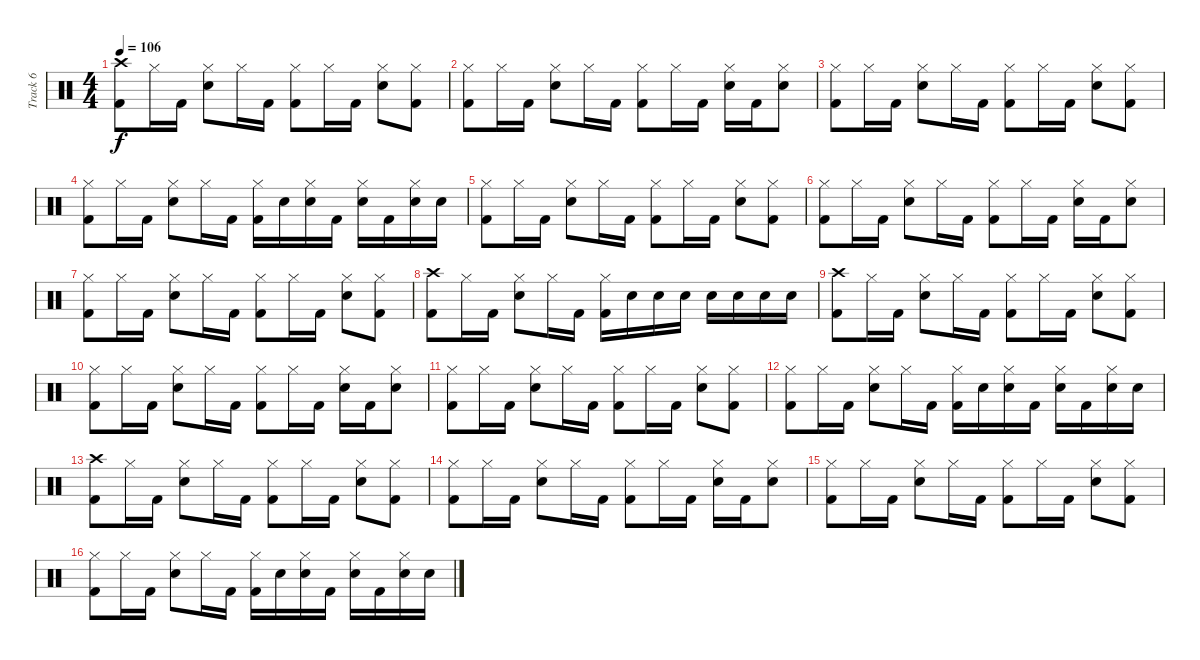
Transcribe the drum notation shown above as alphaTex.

\track ("Track 6" "Track 6") {instrument percussion}
\staff {score}
\articulation defaults
\ts (4 4)
\tempo 106
\clef neutral
\ks c
("Crash high (hit)" "Kick (hit) 2").8{dy f} "Hi-Hat (closed)".16 "Kick (hit) 2".16 ("Hi-Hat (closed)" "Snare (hit) 2").8 "Hi-Hat (closed)".16 "Kick (hit) 2".16 ("Hi-Hat (closed)" "Kick (hit) 2").8 "Hi-Hat (closed)".16 "Kick (hit) 2".16 ("Hi-Hat (closed)" "Snare (hit) 2").8 ("Hi-Hat (closed)" "Kick (hit) 2").8 |
("Hi-Hat (closed)" "Kick (hit) 2").8 "Hi-Hat (closed)".16 "Kick (hit) 2".16 ("Hi-Hat (closed)" "Snare (hit) 2").8 "Hi-Hat (closed)".16 "Kick (hit) 2".16 ("Hi-Hat (closed)" "Kick (hit) 2").8 "Hi-Hat (closed)".16 "Kick (hit) 2".16 ("Hi-Hat (closed)" "Snare (hit) 2").16 "Kick (hit) 2".16 ("Hi-Hat (closed)" "Snare (hit) 2").8 |
("Hi-Hat (closed)" "Kick (hit) 2").8 "Hi-Hat (closed)".16 "Kick (hit) 2".16 ("Hi-Hat (closed)" "Snare (hit) 2").8 "Hi-Hat (closed)".16 "Kick (hit) 2".16 ("Hi-Hat (closed)" "Kick (hit) 2").8 "Hi-Hat (closed)".16 "Kick (hit) 2".16 ("Hi-Hat (closed)" "Snare (hit) 2").8 ("Hi-Hat (closed)" "Kick (hit) 2").8 |
("Hi-Hat (closed)" "Kick (hit) 2").8 "Hi-Hat (closed)".16 "Kick (hit) 2".16 ("Hi-Hat (closed)" "Snare (hit) 2").8 "Hi-Hat (closed)".16 "Kick (hit) 2".16 ("Hi-Hat (closed)" "Kick (hit) 2").16 "Snare (hit) 2".16 ("Hi-Hat (closed)" "Snare (hit) 2").16 "Kick (hit) 2".16 ("Hi-Hat (closed)" "Snare (hit) 2").16 "Kick (hit) 2".16 ("Hi-Hat (closed)" "Snare (hit) 2").16 "Snare (hit) 2".16 |
("Hi-Hat (closed)" "Kick (hit) 2").8 "Hi-Hat (closed)".16 "Kick (hit) 2".16 ("Hi-Hat (closed)" "Snare (hit) 2").8 "Hi-Hat (closed)".16 "Kick (hit) 2".16 ("Hi-Hat (closed)" "Kick (hit) 2").8 "Hi-Hat (closed)".16 "Kick (hit) 2".16 ("Hi-Hat (closed)" "Snare (hit) 2").8 ("Hi-Hat (closed)" "Kick (hit) 2").8 |
("Hi-Hat (closed)" "Kick (hit) 2").8 "Hi-Hat (closed)".16 "Kick (hit) 2".16 ("Hi-Hat (closed)" "Snare (hit) 2").8 "Hi-Hat (closed)".16 "Kick (hit) 2".16 ("Hi-Hat (closed)" "Kick (hit) 2").8 "Hi-Hat (closed)".16 "Kick (hit) 2".16 ("Hi-Hat (closed)" "Snare (hit) 2").16 "Kick (hit) 2".16 ("Hi-Hat (closed)" "Snare (hit) 2").8 |
("Hi-Hat (closed)" "Kick (hit) 2").8 "Hi-Hat (closed)".16 "Kick (hit) 2".16 ("Hi-Hat (closed)" "Snare (hit) 2").8 "Hi-Hat (closed)".16 "Kick (hit) 2".16 ("Hi-Hat (closed)" "Kick (hit) 2").8 "Hi-Hat (closed)".16 "Kick (hit) 2".16 ("Hi-Hat (closed)" "Snare (hit) 2").8 ("Hi-Hat (closed)" "Kick (hit) 2").8 |
("Crash high (hit)" "Kick (hit) 2").8 "Hi-Hat (closed)".16 "Kick (hit) 2".16 ("Hi-Hat (closed)" "Snare (hit) 2").8 "Hi-Hat (closed)".16 "Kick (hit) 2".16 ("Hi-Hat (closed)" "Kick (hit) 2").16 "Snare (hit) 2".16 "Snare (hit) 2".16 "Snare (hit) 2".16 "Snare (hit) 2".16 "Snare (hit) 2".16 "Snare (hit) 2".16 "Snare (hit) 2".16 |
("Crash high (hit)" "Kick (hit) 2").8 "Hi-Hat (closed)".16 "Kick (hit) 2".16 ("Hi-Hat (closed)" "Snare (hit) 2").8 "Hi-Hat (closed)".16 "Kick (hit) 2".16 ("Hi-Hat (closed)" "Kick (hit) 2").8 "Hi-Hat (closed)".16 "Kick (hit) 2".16 ("Hi-Hat (closed)" "Snare (hit) 2").8 ("Hi-Hat (closed)" "Kick (hit) 2").8 |
("Hi-Hat (closed)" "Kick (hit) 2").8 "Hi-Hat (closed)".16 "Kick (hit) 2".16 ("Hi-Hat (closed)" "Snare (hit) 2").8 "Hi-Hat (closed)".16 "Kick (hit) 2".16 ("Hi-Hat (closed)" "Kick (hit) 2").8 "Hi-Hat (closed)".16 "Kick (hit) 2".16 ("Hi-Hat (closed)" "Snare (hit) 2").16 "Kick (hit) 2".16 ("Hi-Hat (closed)" "Snare (hit) 2").8 |
("Hi-Hat (closed)" "Kick (hit) 2").8 "Hi-Hat (closed)".16 "Kick (hit) 2".16 ("Hi-Hat (closed)" "Snare (hit) 2").8 "Hi-Hat (closed)".16 "Kick (hit) 2".16 ("Hi-Hat (closed)" "Kick (hit) 2").8 "Hi-Hat (closed)".16 "Kick (hit) 2".16 ("Hi-Hat (closed)" "Snare (hit) 2").8 ("Hi-Hat (closed)" "Kick (hit) 2").8 |
("Hi-Hat (closed)" "Kick (hit) 2").8 "Hi-Hat (closed)".16 "Kick (hit) 2".16 ("Hi-Hat (closed)" "Snare (hit) 2").8 "Hi-Hat (closed)".16 "Kick (hit) 2".16 ("Hi-Hat (closed)" "Kick (hit) 2").16 "Snare (hit) 2".16 ("Hi-Hat (closed)" "Snare (hit) 2").16 "Kick (hit) 2".16 ("Hi-Hat (closed)" "Snare (hit) 2").16 "Kick (hit) 2".16 ("Hi-Hat (closed)" "Snare (hit) 2").16 "Snare (hit) 2".16 |
("Crash high (hit)" "Kick (hit) 2").8 "Hi-Hat (closed)".16 "Kick (hit) 2".16 ("Hi-Hat (closed)" "Snare (hit) 2").8 "Hi-Hat (closed)".16 "Kick (hit) 2".16 ("Hi-Hat (closed)" "Kick (hit) 2").8 "Hi-Hat (closed)".16 "Kick (hit) 2".16 ("Hi-Hat (closed)" "Snare (hit) 2").8 ("Hi-Hat (closed)" "Kick (hit) 2").8 |
("Hi-Hat (closed)" "Kick (hit) 2").8 "Hi-Hat (closed)".16 "Kick (hit) 2".16 ("Hi-Hat (closed)" "Snare (hit) 2").8 "Hi-Hat (closed)".16 "Kick (hit) 2".16 ("Hi-Hat (closed)" "Kick (hit) 2").8 "Hi-Hat (closed)".16 "Kick (hit) 2".16 ("Hi-Hat (closed)" "Snare (hit) 2").16 "Kick (hit) 2".16 ("Hi-Hat (closed)" "Snare (hit) 2").8 |
("Hi-Hat (closed)" "Kick (hit) 2").8 "Hi-Hat (closed)".16 "Kick (hit) 2".16 ("Hi-Hat (closed)" "Snare (hit) 2").8 "Hi-Hat (closed)".16 "Kick (hit) 2".16 ("Hi-Hat (closed)" "Kick (hit) 2").8 "Hi-Hat (closed)".16 "Kick (hit) 2".16 ("Hi-Hat (closed)" "Snare (hit) 2").8 ("Hi-Hat (closed)" "Kick (hit) 2").8 |
("Hi-Hat (closed)" "Kick (hit) 2").8 "Hi-Hat (closed)".16 "Kick (hit) 2".16 ("Hi-Hat (closed)" "Snare (hit) 2").8 "Hi-Hat (closed)".16 "Kick (hit) 2".16 ("Hi-Hat (closed)" "Kick (hit) 2").16 "Snare (hit) 2".16 ("Hi-Hat (closed)" "Snare (hit) 2").16 "Kick (hit) 2".16 ("Hi-Hat (closed)" "Snare (hit) 2").16 "Kick (hit) 2".16 ("Hi-Hat (closed)" "Snare (hit) 2").16 "Snare (hit) 2".16
